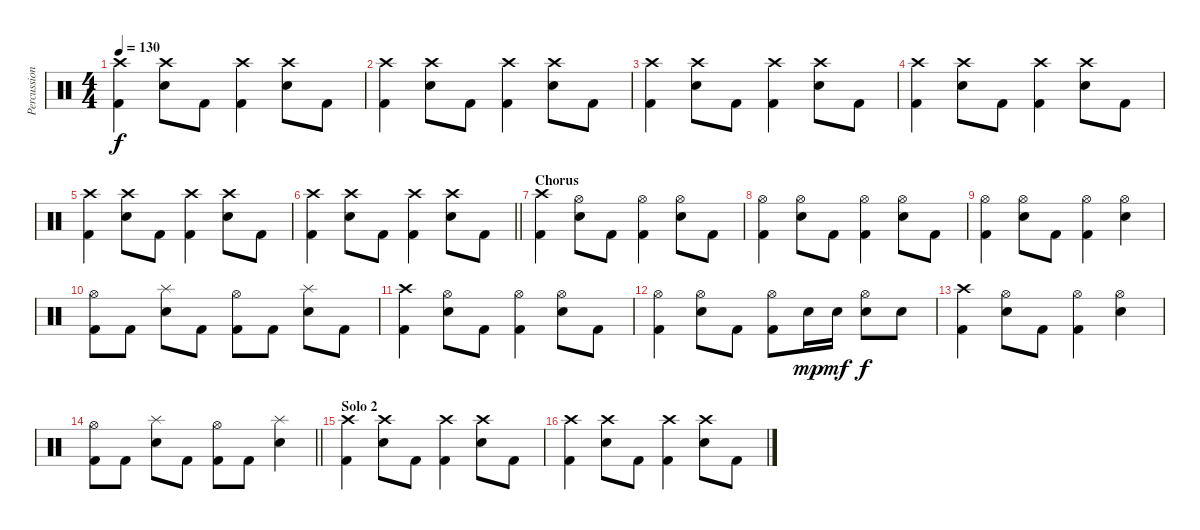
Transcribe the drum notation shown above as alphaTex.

\track ("Percussion" "Percussion") {instrument percussion}
\staff {score}
\articulation defaults
\ts (4 4)
\tempo 130
\clef neutral
\ks c
("Crash high (hit)" "Kick (hit) 2").4{dy f} ("Crash high (hit)" "Electric Snare (hit)").8 "Kick (hit) 2".8 ("Crash high (hit)" "Kick (hit) 2").4 ("Crash high (hit)" "Electric Snare (hit)").8 "Kick (hit) 2".8 |
("Crash high (hit)" "Kick (hit) 2").4 ("Crash high (hit)" "Electric Snare (hit)").8 "Kick (hit) 2".8 ("Crash high (hit)" "Kick (hit) 2").4 ("Crash high (hit)" "Electric Snare (hit)").8 "Kick (hit) 2".8 |
("Crash high (hit)" "Kick (hit) 2").4 ("Crash high (hit)" "Electric Snare (hit)").8 "Kick (hit) 2".8 ("Crash high (hit)" "Kick (hit) 2").4 ("Crash high (hit)" "Electric Snare (hit)").8 "Kick (hit) 2".8 |
("Crash high (hit)" "Kick (hit) 2").4 ("Crash high (hit)" "Electric Snare (hit)").8 "Kick (hit) 2".8 ("Crash high (hit)" "Kick (hit) 2").4 ("Crash high (hit)" "Electric Snare (hit)").8 "Kick (hit) 2".8 |
("Crash high (hit)" "Kick (hit) 2").4 ("Crash high (hit)" "Electric Snare (hit)").8 "Kick (hit) 2".8 ("Crash high (hit)" "Kick (hit) 2").4 ("Crash high (hit)" "Electric Snare (hit)").8 "Kick (hit) 2".8 |
\barLineRight lightlight
("Crash high (hit)" "Kick (hit) 2").4 ("Crash high (hit)" "Electric Snare (hit)").8 "Kick (hit) 2".8 ("Crash high (hit)" "Kick (hit) 2").4 ("Crash high (hit)" "Electric Snare (hit)").8 "Kick (hit) 2".8 |
\section ("" "Chorus")
("Crash high (hit)" "Kick (hit) 2").4 ("Hi-Hat (open)" "Electric Snare (hit)").8 "Kick (hit) 2".8 ("Hi-Hat (open)" "Kick (hit) 2").4 ("Hi-Hat (open)" "Electric Snare (hit)").8 "Kick (hit) 2".8 |
("Hi-Hat (open)" "Kick (hit) 2").4 ("Hi-Hat (open)" "Electric Snare (hit)").8 "Kick (hit) 2".8 ("Hi-Hat (open)" "Kick (hit) 2").4 ("Hi-Hat (open)" "Electric Snare (hit)").8 "Kick (hit) 2".8 |
("Hi-Hat (open)" "Kick (hit) 2").4 ("Hi-Hat (open)" "Electric Snare (hit)").8 "Kick (hit) 2".8 ("Hi-Hat (open)" "Kick (hit) 2").4 ("Hi-Hat (open)" "Electric Snare (hit)").4 |
("Hi-Hat (open)" "Kick (hit) 2").8 "Kick (hit) 2".8 ("Splash (hit)" "Electric Snare (hit)").8 "Kick (hit) 2".8 ("Hi-Hat (open)" "Kick (hit) 2").8 "Kick (hit) 2".8 ("Splash (hit)" "Electric Snare (hit)").8 "Kick (hit) 2".8 |
("Crash high (hit)" "Kick (hit) 2").4 ("Hi-Hat (open)" "Electric Snare (hit)").8 "Kick (hit) 2".8 ("Hi-Hat (open)" "Kick (hit) 2").4 ("Hi-Hat (open)" "Electric Snare (hit)").8 "Kick (hit) 2".8 |
("Hi-Hat (open)" "Kick (hit) 2").4 ("Hi-Hat (open)" "Electric Snare (hit)").8 "Kick (hit) 2".8 ("Hi-Hat (open)" "Kick (hit) 2").8 "Electric Snare (hit)".16{dy mp} "Electric Snare (hit)".16{dy mf} ("Hi-Hat (open)" "Electric Snare (hit)").8{dy f} "Electric Snare (hit)".8 |
("Crash high (hit)" "Kick (hit) 2").4 ("Hi-Hat (open)" "Electric Snare (hit)").8 "Kick (hit) 2".8 ("Hi-Hat (open)" "Kick (hit) 2").4 ("Hi-Hat (open)" "Electric Snare (hit)").4 |
\barLineRight lightlight
("Hi-Hat (open)" "Kick (hit) 2").8 "Kick (hit) 2".8 ("Splash (hit)" "Electric Snare (hit)").8 "Kick (hit) 2".8 ("Hi-Hat (open)" "Kick (hit) 2").8 "Kick (hit) 2".8 ("Splash (hit)" "Electric Snare (hit)").4 |
\section ("" "Solo 2")
("Crash high (hit)" "Kick (hit) 2").4 ("Crash high (hit)" "Electric Snare (hit)").8 "Kick (hit) 2".8 ("Crash high (hit)" "Kick (hit) 2").4 ("Crash high (hit)" "Electric Snare (hit)").8 "Kick (hit) 2".8 |
("Crash high (hit)" "Kick (hit) 2").4 ("Crash high (hit)" "Electric Snare (hit)").8 "Kick (hit) 2".8 ("Crash high (hit)" "Kick (hit) 2").4 ("Crash high (hit)" "Electric Snare (hit)").8 "Kick (hit) 2".8
